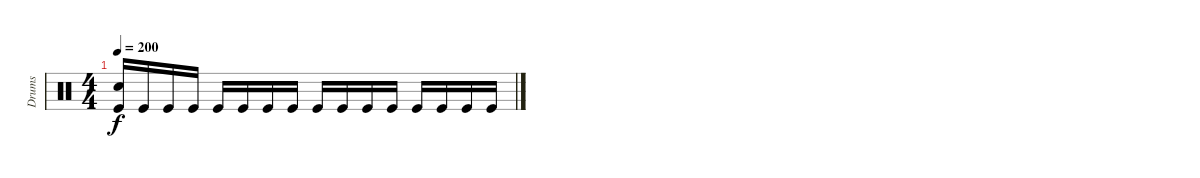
\track ("Drums" "Drums") {instrument percussion}
\staff {score}
\articulation defaults
\ts (4 4)
\tempo 200
\clef neutral
\ks c
("Snare (hit) 2" "Kick (hit)").16{dy f} "Kick (hit)".16 "Kick (hit)".16 "Kick (hit)".16 "Kick (hit)".16 "Kick (hit)".16 "Kick (hit)".16 "Kick (hit)".16 "Kick (hit)".16 "Kick (hit)".16 "Kick (hit)".16 "Kick (hit)".16 "Kick (hit)".16 "Kick (hit)".16 "Kick (hit)".16 "Kick (hit)".16
